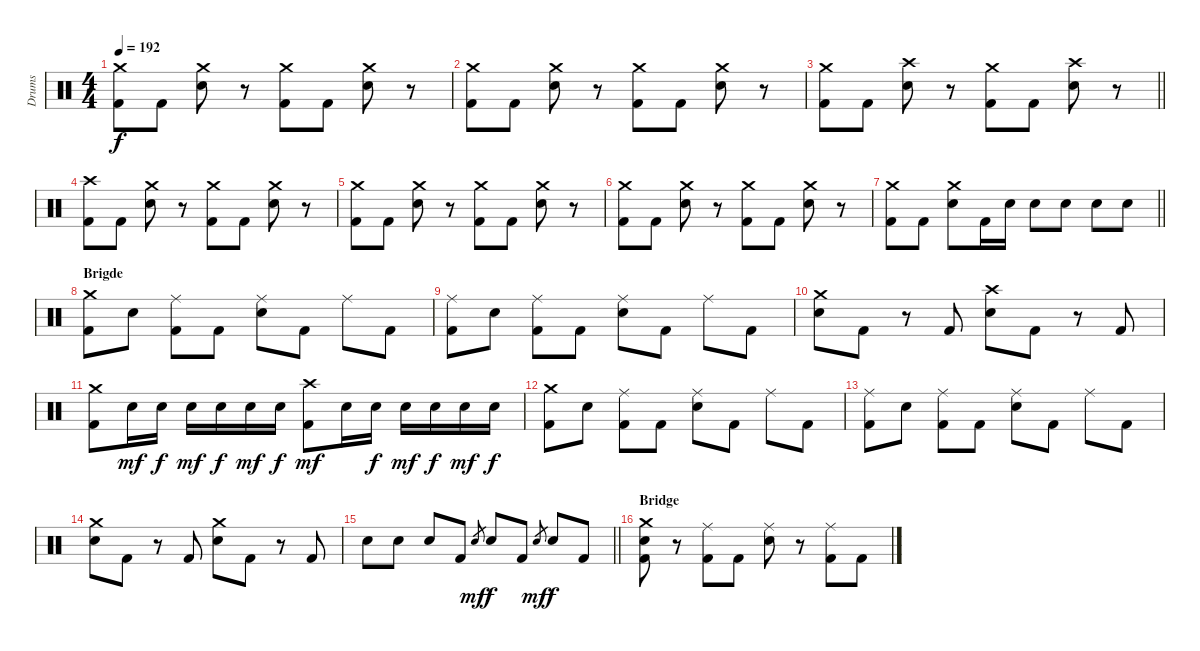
\track ("Drums" "Drums") {instrument percussion}
\staff {score}
\articulation defaults
\ts (4 4)
\tempo 192
\clef neutral
\ks c
("Crash medium (hit)" "Kick (hit) 2").8{dy f} "Kick (hit) 2".8 ("Crash medium (hit)" "Snare (hit) 2").8 r.8 ("Crash medium (hit)" "Kick (hit) 2").8 "Kick (hit) 2".8 ("Crash medium (hit)" "Snare (hit) 2").8 r.8 |
("Crash medium (hit)" "Kick (hit) 2").8 "Kick (hit) 2".8 ("Crash medium (hit)" "Snare (hit) 2").8 r.8 ("Crash medium (hit)" "Kick (hit) 2").8 "Kick (hit) 2".8 ("Crash medium (hit)" "Snare (hit) 2").8 r.8 |
\barLineRight lightlight
("Crash medium (hit)" "Kick (hit) 2").8 "Kick (hit) 2".8 ("Crash high (hit)" "Snare (hit) 2").8 r.8 ("Crash medium (hit)" "Kick (hit) 2").8 "Kick (hit) 2".8 ("Crash high (hit)" "Snare (hit) 2").8 r.8 |
("Crash high (hit)" "Kick (hit) 2").8 "Kick (hit) 2".8 ("Crash medium (hit)" "Snare (hit) 2").8 r.8 ("Crash medium (hit)" "Kick (hit) 2").8 "Kick (hit) 2".8 ("Crash medium (hit)" "Snare (hit) 2").8 r.8 |
("Crash medium (hit)" "Kick (hit) 2").8 "Kick (hit) 2".8 ("Crash medium (hit)" "Snare (hit) 2").8 r.8 ("Crash medium (hit)" "Kick (hit) 2").8 "Kick (hit) 2".8 ("Crash medium (hit)" "Snare (hit) 2").8 r.8 |
("Crash medium (hit)" "Kick (hit) 2").8 "Kick (hit) 2".8 ("Crash medium (hit)" "Snare (hit) 2").8 r.8 ("Crash medium (hit)" "Kick (hit) 2").8 "Kick (hit) 2".8 ("Crash medium (hit)" "Snare (hit) 2").8 r.8 |
\barLineRight lightlight
("Crash medium (hit)" "Kick (hit) 2").8 "Kick (hit) 2".8 ("Crash medium (hit)" "Snare (hit) 2").8 "Kick (hit) 2".16 "Snare (hit) 2".16 "Snare (hit) 2".8 "Snare (hit) 2".8 "Snare (hit) 2".8 "Snare (hit) 2".8 |
\section ("" "Brigde")
("Crash medium (hit)" "Kick (hit) 2").8 "Snare (hit) 2".8 ("Ride (middle)" "Kick (hit) 2").8 "Kick (hit) 2".8 ("Ride (middle)" "Snare (hit) 2").8 "Kick (hit) 2".8 "Ride (middle)".8 "Kick (hit) 2".8 |
("Ride (middle)" "Kick (hit) 2").8 "Snare (hit) 2".8 ("Ride (middle)" "Kick (hit) 2").8 "Kick (hit) 2".8 ("Ride (middle)" "Snare (hit) 2").8 "Kick (hit) 2".8 "Ride (middle)".8 "Kick (hit) 2".8 |
("Crash medium (hit)" "Snare (hit) 2").8 "Kick (hit) 2".8 r.8 "Kick (hit) 2".8 ("Crash high (hit)" "Snare (hit) 2").8 "Kick (hit) 2".8 r.8 "Kick (hit) 2".8 |
("Crash medium (hit)" "Kick (hit) 2").8 "Snare (hit) 2".16{dy mf} "Snare (hit) 2".16{dy f} "Snare (hit) 2".16{dy mf} "Snare (hit) 2".16{dy f} "Snare (hit) 2".16{dy mf} "Snare (hit) 2".16{dy f} ("Crash high (hit)" "Kick (hit) 2").8{dy mf} "Snare (hit) 2".16 "Snare (hit) 2".16{dy f} "Snare (hit) 2".16{dy mf} "Snare (hit) 2".16{dy f} "Snare (hit) 2".16{dy mf} "Snare (hit) 2".16{dy f} |
("Crash medium (hit)" "Kick (hit) 2").8 "Snare (hit) 2".8 ("Ride (middle)" "Kick (hit) 2").8 "Kick (hit) 2".8 ("Ride (middle)" "Snare (hit) 2").8 "Kick (hit) 2".8 "Ride (middle)".8 "Kick (hit) 2".8 |
("Ride (middle)" "Kick (hit) 2").8 "Snare (hit) 2".8 ("Ride (middle)" "Kick (hit) 2").8 "Kick (hit) 2".8 ("Ride (middle)" "Snare (hit) 2").8 "Kick (hit) 2".8 "Ride (middle)".8 "Kick (hit) 2".8 |
("Crash medium (hit)" "Snare (hit) 2").8 "Kick (hit) 2".8 r.8 "Kick (hit) 2".8 ("Crash medium (hit)" "Snare (hit) 2").8 "Kick (hit) 2".8 r.8 "Kick (hit) 2".8 |
\barLineRight lightlight "Snare (hit) 2".8 "Snare (hit) 2".8 "Snare (hit) 2".8 "Kick (hit) 2".8 "Snare (hit) 2".8{gr dy mf} "Snare (hit) 2".8{dy f} "Kick (hit) 2".8 "Snare (hit) 2".8{gr dy mf} "Snare (hit) 2".8{dy f} "Kick (hit) 2".8
|
\section ("" "Bridge")
("Crash medium (hit)" "Snare (hit) 2" "Kick (hit) 2").8 r.8 ("Ride (middle)" "Kick (hit) 2").8 "Kick (hit) 2".8 ("Ride (middle)" "Snare (hit) 2").8 r.8 ("Ride (middle)" "Kick (hit) 2").8 "Kick (hit) 2".8
